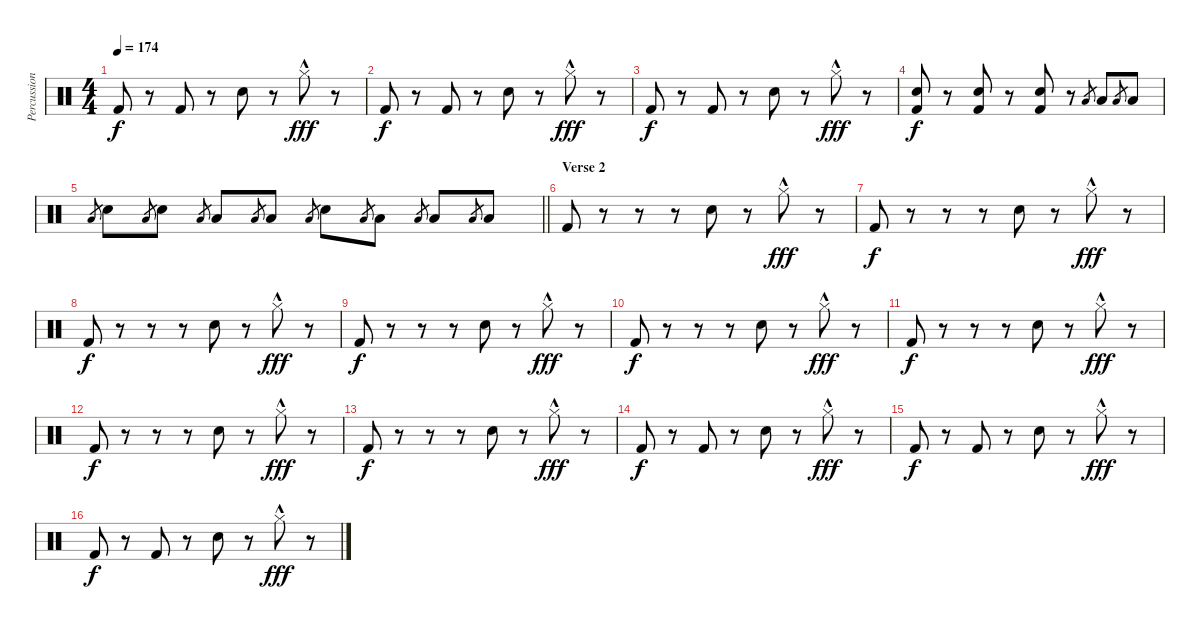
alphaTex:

\track ("Percussion" "Percussion") {instrument percussion}
\staff {score}
\articulation defaults
\ts (4 4)
\tempo 174
\clef neutral
\ks c "Kick (hit) 2".8{dy f}
r.8 "Kick (hit) 2".8 r.8 "Snare (hit) 2".8 r.8 "Hi-Hat (closed)"{hac}.8{dy fff} r.8 |
"Kick (hit) 2".8{dy f} r.8 "Kick (hit) 2".8 r.8 "Snare (hit) 2".8 r.8 "Hi-Hat (closed)"{hac}.8{dy fff} r.8 |
"Kick (hit) 2".8{dy f} r.8 "Kick (hit) 2".8 r.8 "Snare (hit) 2".8 r.8 "Hi-Hat (closed)"{hac}.8{dy fff} r.8 |
("Snare (hit) 2" "Kick (hit) 2").8{dy f} r.8 ("Snare (hit) 2" "Kick (hit) 2").8 r.8 ("Snare (hit) 2" "Kick (hit) 2").8 r.8 "Low Tom (hit)".8{gr} "Low Tom (hit)".8 "Low Tom (hit)".8{gr} "Low Tom (hit)".8 |
\barLineRight lightlight "Low Tom (hit)".8{gr} "Snare (hit) 2".8 "Low Tom (hit)".8{gr} "Snare (hit) 2".8 "Low Tom (hit)".8{gr} "Low Tom (hit)".8 "Low Tom (hit)".8{gr} "Low Tom (hit)".8 "Low Tom (hit)".8{gr} "Snare (hit) 2".8 "Low Tom (hit)".8{gr} "Low Tom (hit)".8 "Low Tom (hit)".8{gr} "Low Tom (hit)".8 "Low Tom (hit)".8{gr} "Low Tom (hit)".8
|
\section ("" "Verse 2")
"Kick (hit) 2".8 r.8 r.8 r.8 "Snare (hit) 2".8 r.8 "Hi-Hat (closed)"{hac}.8{dy fff} r.8 |
"Kick (hit) 2".8{dy f} r.8 r.8 r.8 "Snare (hit) 2".8 r.8 "Hi-Hat (closed)"{hac}.8{dy fff} r.8 |
"Kick (hit) 2".8{dy f} r.8 r.8 r.8 "Snare (hit) 2".8 r.8 "Hi-Hat (closed)"{hac}.8{dy fff} r.8 |
"Kick (hit) 2".8{dy f} r.8 r.8 r.8 "Snare (hit) 2".8 r.8 "Hi-Hat (closed)"{hac}.8{dy fff} r.8 |
"Kick (hit) 2".8{dy f} r.8 r.8 r.8 "Snare (hit) 2".8 r.8 "Hi-Hat (closed)"{hac}.8{dy fff} r.8 |
"Kick (hit) 2".8{dy f} r.8 r.8 r.8 "Snare (hit) 2".8 r.8 "Hi-Hat (closed)"{hac}.8{dy fff} r.8 |
"Kick (hit) 2".8{dy f} r.8 r.8 r.8 "Snare (hit) 2".8 r.8 "Hi-Hat (closed)"{hac}.8{dy fff} r.8 |
"Kick (hit) 2".8{dy f} r.8 r.8 r.8 "Snare (hit) 2".8 r.8 "Hi-Hat (closed)"{hac}.8{dy fff} r.8 |
"Kick (hit) 2".8{dy f} r.8 "Kick (hit) 2".8 r.8 "Snare (hit) 2".8 r.8 "Hi-Hat (closed)"{hac}.8{dy fff} r.8 |
"Kick (hit) 2".8{dy f} r.8 "Kick (hit) 2".8 r.8 "Snare (hit) 2".8 r.8 "Hi-Hat (closed)"{hac}.8{dy fff} r.8 |
"Kick (hit) 2".8{dy f} r.8 "Kick (hit) 2".8 r.8 "Snare (hit) 2".8 r.8 "Hi-Hat (closed)"{hac}.8{dy fff} r.8
